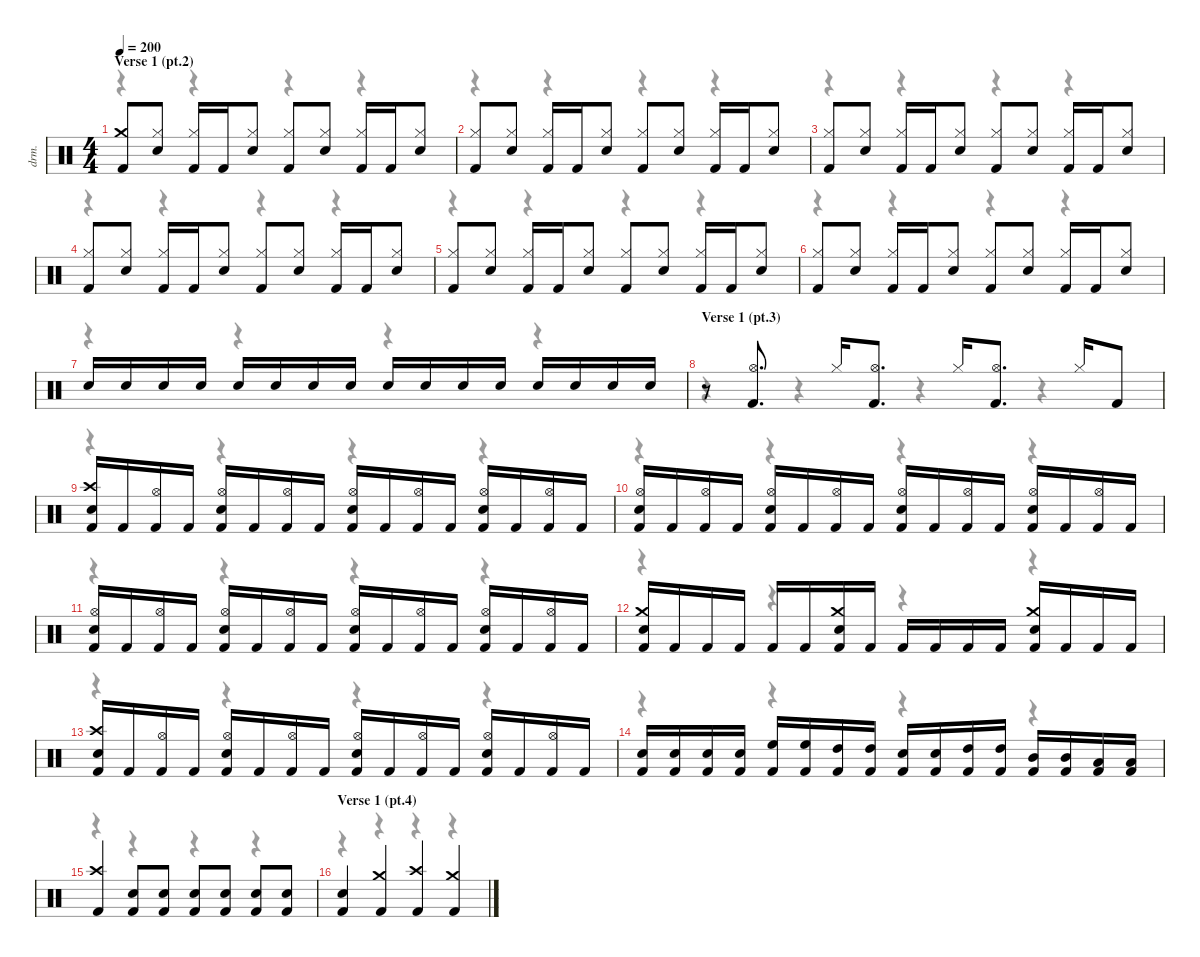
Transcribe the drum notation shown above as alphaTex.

\defaultSystemsLayout 4
\hideDynamics
\bracketExtendMode nobrackets
\otherSystemsTrackNameOrientation horizontal
\track ("David Mackintosh (Drums)" "drm.") {instrument percussion}
\staff {score}
\articulation defaults
\voice
\ts (4 4)
\section ("" "Verse 1 (pt.2)")
\tempo 200
\clef neutral
\ks c
("Kick (hit) 2" "Crash medium (hit)").8{dy f} ("Snare (hit) 2" "Hi-Hat (closed)").8 ("Kick (hit) 2" "Hi-Hat (closed)").16 "Kick (hit) 2".16 ("Snare (hit) 2" "Hi-Hat (closed)").8 ("Kick (hit) 2" "Hi-Hat (closed)").8 ("Snare (hit) 2" "Hi-Hat (closed)").8 ("Kick (hit) 2" "Hi-Hat (closed)").16 "Kick (hit) 2".16 ("Snare (hit) 2" "Hi-Hat (closed)").8 |
("Kick (hit) 2" "Hi-Hat (closed)").8 ("Snare (hit) 2" "Hi-Hat (closed)").8 ("Kick (hit) 2" "Hi-Hat (closed)").16 "Kick (hit) 2".16 ("Snare (hit) 2" "Hi-Hat (closed)").8 ("Kick (hit) 2" "Hi-Hat (closed)").8 ("Snare (hit) 2" "Hi-Hat (closed)").8 ("Kick (hit) 2" "Hi-Hat (closed)").16 "Kick (hit) 2".16 ("Snare (hit) 2" "Hi-Hat (closed)").8 |
("Kick (hit) 2" "Hi-Hat (closed)").8 ("Snare (hit) 2" "Hi-Hat (closed)").8 ("Kick (hit) 2" "Hi-Hat (closed)").16 "Kick (hit) 2".16 ("Snare (hit) 2" "Hi-Hat (closed)").8 ("Kick (hit) 2" "Hi-Hat (closed)").8 ("Snare (hit) 2" "Hi-Hat (closed)").8 ("Kick (hit) 2" "Hi-Hat (closed)").16 "Kick (hit) 2".16 ("Snare (hit) 2" "Hi-Hat (closed)").8 |
("Kick (hit) 2" "Hi-Hat (closed)").8 ("Snare (hit) 2" "Hi-Hat (closed)").8 ("Kick (hit) 2" "Hi-Hat (closed)").16 "Kick (hit) 2".16 ("Snare (hit) 2" "Hi-Hat (closed)").8 ("Kick (hit) 2" "Hi-Hat (closed)").8 ("Snare (hit) 2" "Hi-Hat (closed)").8 ("Kick (hit) 2" "Hi-Hat (closed)").16 "Kick (hit) 2".16 ("Snare (hit) 2" "Hi-Hat (closed)").8 |
("Kick (hit) 2" "Hi-Hat (closed)").8 ("Snare (hit) 2" "Hi-Hat (closed)").8 ("Kick (hit) 2" "Hi-Hat (closed)").16 "Kick (hit) 2".16 ("Snare (hit) 2" "Hi-Hat (closed)").8 ("Kick (hit) 2" "Hi-Hat (closed)").8 ("Snare (hit) 2" "Hi-Hat (closed)").8 ("Kick (hit) 2" "Hi-Hat (closed)").16 "Kick (hit) 2".16 ("Snare (hit) 2" "Hi-Hat (closed)").8 |
("Kick (hit) 2" "Hi-Hat (closed)").8 ("Snare (hit) 2" "Hi-Hat (closed)").8 ("Kick (hit) 2" "Hi-Hat (closed)").16 "Kick (hit) 2".16 ("Snare (hit) 2" "Hi-Hat (closed)").8 ("Kick (hit) 2" "Hi-Hat (closed)").8 ("Snare (hit) 2" "Hi-Hat (closed)").8 ("Kick (hit) 2" "Hi-Hat (closed)").16 "Kick (hit) 2".16 ("Snare (hit) 2" "Hi-Hat (closed)").8 |
"Snare (hit) 2".16 "Snare (hit) 2".16 "Snare (hit) 2".16 "Snare (hit) 2".16 "Snare (hit) 2".16 "Snare (hit) 2".16 "Snare (hit) 2".16 "Snare (hit) 2".16 "Snare (hit) 2".16 "Snare (hit) 2".16 "Snare (hit) 2".16 "Snare (hit) 2".16 "Snare (hit) 2".16 "Snare (hit) 2".16 "Snare (hit) 2".16 "Snare (hit) 2".16 |
\section ("" "Verse 1 (pt.3)")
r.8 ("Kick (hit) 2" "Hi-Hat (open)").8{d} "Hi-Hat (closed)".16{dy ppp} ("Kick (hit) 2" "Hi-Hat (open)").8{d dy f} "Hi-Hat (closed)".16{dy ppp} ("Kick (hit) 2" "Hi-Hat (open)").8{d dy f} "Hi-Hat (closed)".16{dy ppp} "Kick (hit) 2".8{dy f} |
("Kick (hit) 2" "Snare (hit) 2" "Crash high (hit)").16 "Kick (hit) 2".16 ("Kick (hit) 2" "Hi-Hat (open)").16 "Kick (hit) 2".16 ("Kick (hit) 2" "Snare (hit) 2" "Hi-Hat (open)").16 "Kick (hit) 2".16 ("Kick (hit) 2" "Hi-Hat (open)").16 "Kick (hit) 2".16 ("Kick (hit) 2" "Snare (hit) 2" "Hi-Hat (open)").16 "Kick (hit) 2".16 ("Kick (hit) 2" "Hi-Hat (open)").16 "Kick (hit) 2".16 ("Kick (hit) 2" "Snare (hit) 2" "Hi-Hat (open)").16 "Kick (hit) 2".16 ("Kick (hit) 2" "Hi-Hat (open)").16 "Kick (hit) 2".16 |
("Kick (hit) 2" "Snare (hit) 2" "Hi-Hat (open)").16 "Kick (hit) 2".16 ("Kick (hit) 2" "Hi-Hat (open)").16 "Kick (hit) 2".16 ("Kick (hit) 2" "Snare (hit) 2" "Hi-Hat (open)").16 "Kick (hit) 2".16 ("Kick (hit) 2" "Hi-Hat (open)").16 "Kick (hit) 2".16 ("Kick (hit) 2" "Snare (hit) 2" "Hi-Hat (open)").16 "Kick (hit) 2".16 ("Kick (hit) 2" "Hi-Hat (open)").16 "Kick (hit) 2".16 ("Kick (hit) 2" "Snare (hit) 2" "Hi-Hat (open)").16 "Kick (hit) 2".16 ("Kick (hit) 2" "Hi-Hat (open)").16 "Kick (hit) 2".16 |
("Kick (hit) 2" "Snare (hit) 2" "Hi-Hat (open)").16 "Kick (hit) 2".16 ("Kick (hit) 2" "Hi-Hat (open)").16 "Kick (hit) 2".16 ("Kick (hit) 2" "Snare (hit) 2" "Hi-Hat (open)").16 "Kick (hit) 2".16 ("Kick (hit) 2" "Hi-Hat (open)").16 "Kick (hit) 2".16 ("Kick (hit) 2" "Snare (hit) 2" "Hi-Hat (open)").16 "Kick (hit) 2".16 ("Kick (hit) 2" "Hi-Hat (open)").16 "Kick (hit) 2".16 ("Kick (hit) 2" "Snare (hit) 2" "Hi-Hat (open)").16 "Kick (hit) 2".16 ("Kick (hit) 2" "Hi-Hat (open)").16 "Kick (hit) 2".16 |
("Kick (hit) 2" "Snare (hit) 2" "Crash medium (hit)").16 "Kick (hit) 2".16 "Kick (hit) 2".16 "Kick (hit) 2".16 "Kick (hit) 2".16 "Kick (hit) 2".16 ("Kick (hit) 2" "Snare (hit) 2" "Crash medium (hit)").16 "Kick (hit) 2".16 "Kick (hit) 2".16 "Kick (hit) 2".16 "Kick (hit) 2".16 "Kick (hit) 2".16 ("Kick (hit) 2" "Snare (hit) 2" "Crash medium (hit)").16 "Kick (hit) 2".16 "Kick (hit) 2".16 "Kick (hit) 2".16 |
("Kick (hit) 2" "Snare (hit) 2" "Crash high (hit)").16 "Kick (hit) 2".16 ("Kick (hit) 2" "Hi-Hat (open)").16 "Kick (hit) 2".16 ("Kick (hit) 2" "Snare (hit) 2" "Hi-Hat (open)").16 "Kick (hit) 2".16 ("Kick (hit) 2" "Hi-Hat (open)").16 "Kick (hit) 2".16 ("Kick (hit) 2" "Snare (hit) 2" "Hi-Hat (open)").16 "Kick (hit) 2".16 ("Kick (hit) 2" "Hi-Hat (open)").16 "Kick (hit) 2".16 ("Kick (hit) 2" "Snare (hit) 2" "Hi-Hat (open)").16 "Kick (hit) 2".16 ("Kick (hit) 2" "Hi-Hat (open)").16 "Kick (hit) 2".16 |
("Kick (hit) 2" "Snare (hit) 2").16 ("Kick (hit) 2" "Snare (hit) 2").16 ("Kick (hit) 2" "Snare (hit) 2").16 ("Kick (hit) 2" "Snare (hit) 2").16 ("Kick (hit) 2" "High Floor Tom (hit)").16 ("Kick (hit) 2" "High Floor Tom (hit)").16 ("Kick (hit) 2" "High Tom (hit)").16 ("Kick (hit) 2" "High Tom (hit)").16 ("Kick (hit) 2" "Snare (hit) 2").16 ("Kick (hit) 2" "Snare (hit) 2").16 ("Kick (hit) 2" "High Tom (hit)").16 ("Kick (hit) 2" "High Tom (hit)").16 ("Kick (hit) 2" "Mid Tom (hit)").16 ("Kick (hit) 2" "Mid Tom (hit)").16 ("Kick (hit) 2" "Low Tom (hit)").16 ("Kick (hit) 2" "Low Tom (hit)").16 |
("Kick (hit) 2" "Crash high (hit)").4 ("Kick (hit) 2" "Snare (hit) 2").8 ("Kick (hit) 2" "Snare (hit) 2").8 ("Kick (hit) 2" "Snare (hit) 2").8 ("Kick (hit) 2" "Snare (hit) 2").8 ("Kick (hit) 2" "Snare (hit) 2").8 ("Kick (hit) 2" "Snare (hit) 2").8 |
\section ("" "Verse 1 (pt.4)")
("Kick (hit) 2" "Snare (hit) 2").4 ("Kick (hit) 2" "Crash medium (hit)").4 ("Kick (hit) 2" "Crash high (hit)").4 ("Kick (hit) 2" "Crash medium (hit)").4
\voice
\clef neutral
\ottava regular
\simile none
\ks c
r.4{dy mf} r.4 r.4 r.4 |
r.4 r.4 r.4 r.4 |
r.4 r.4 r.4 r.4 |
r.4 r.4 r.4 r.4 |
r.4 r.4 r.4 r.4 |
r.4 r.4 r.4 r.4 |
r.4 r.4 r.4 r.4 |
r.4 r.4 r.4 r.4 |
r.4 r.4 r.4 r.4 |
r.4 r.4 r.4 r.4 |
r.4 r.4 r.4 r.4 |
r.4 r.4 r.4 r.4 |
r.4 r.4 r.4 r.4 |
r.4 r.4 r.4 r.4 |
r.4 r.4 r.4 r.4 |
r.4 r.4 r.4 r.4
